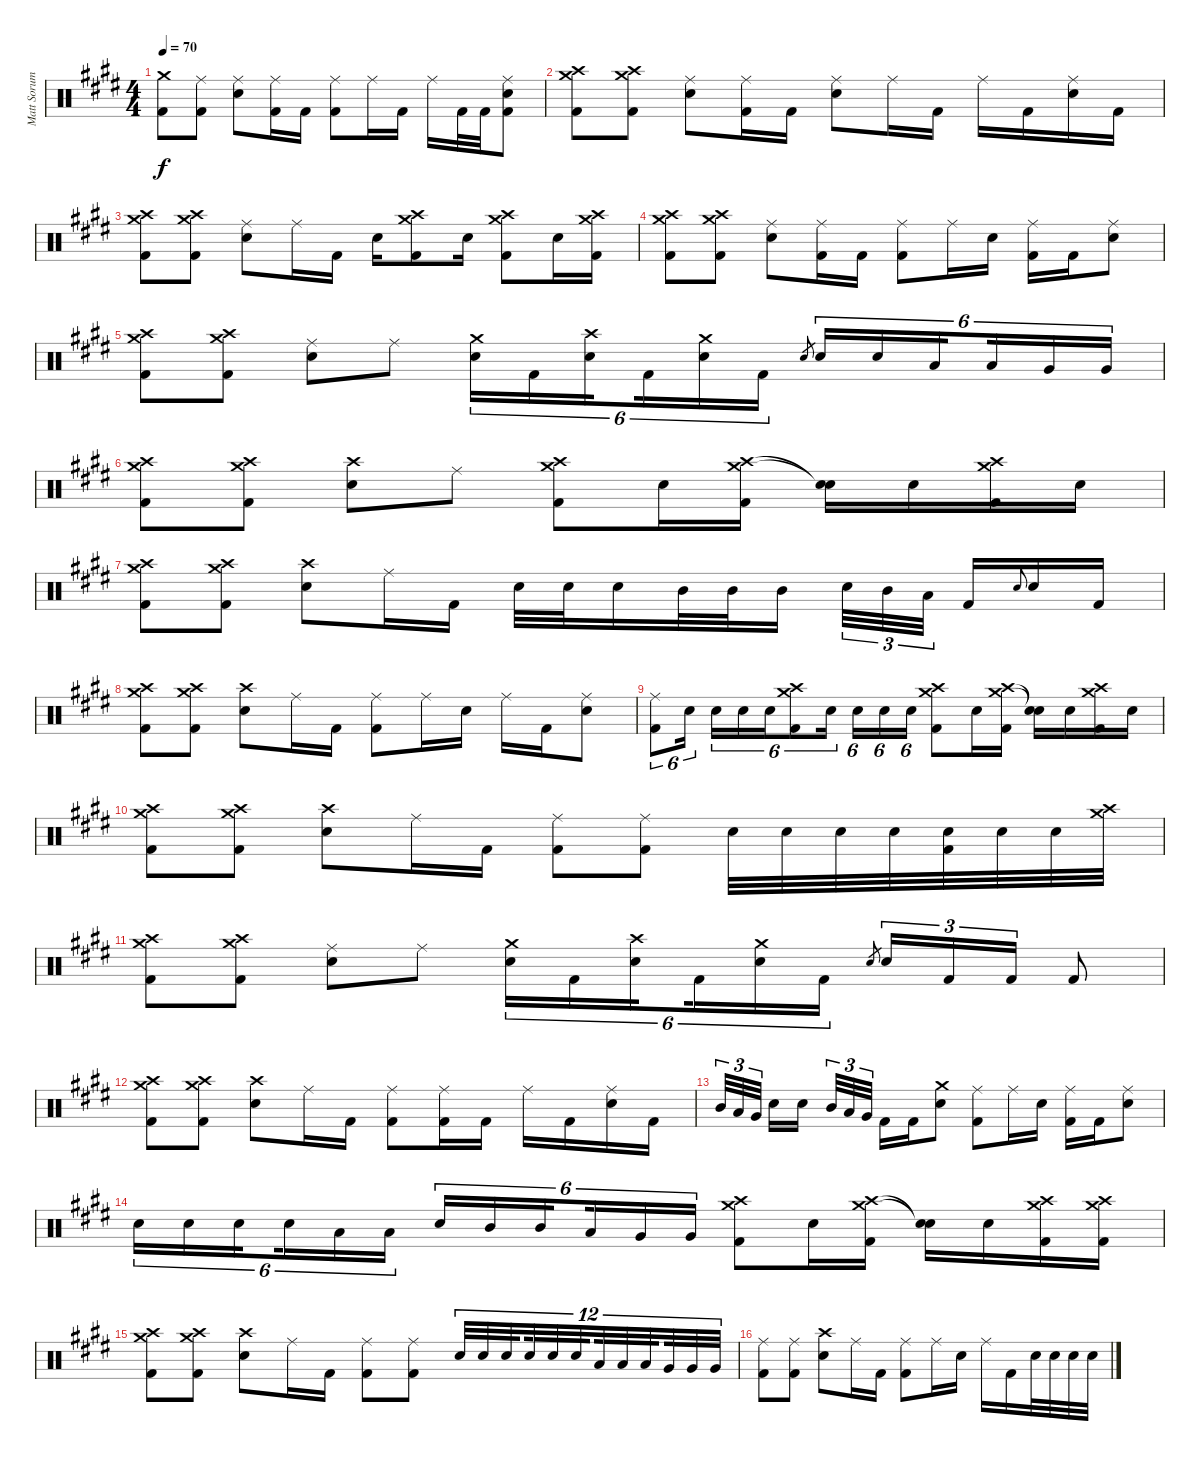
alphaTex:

\track ("Matt Sorum - Drums" "Matt Sorum") {instrument percussion}
\staff {score}
\articulation defaults
\ts (4 4)
\tempo 70
\clef neutral
\ks e
("Crash medium (hit)" "Kick (hit) 2").8{dy f} ("Ride (middle)" "Kick (hit) 2").8 ("Ride (middle)" "Snare (hit) 2").8 ("Ride (middle)" "Kick (hit) 2").16 "Kick (hit) 2".16 ("Ride (middle)" "Kick (hit) 2").8 "Ride (middle)".16 "Kick (hit) 2".16 "Ride (middle)".16 "Kick (hit) 2".32 "Kick (hit) 2".32 ("Ride (middle)" "Snare (hit) 2" "Kick (hit) 2").8 |
("Crash medium (hit)" "Crash high (hit)" "Kick (hit) 2").8 ("Crash high (hit)" "Crash medium (hit)" "Kick (hit) 2").8 ("Ride (middle)" "Snare (hit) 2").8 ("Ride (middle)" "Kick (hit) 2").16 "Kick (hit) 2".16 ("Ride (middle)" "Snare (hit) 2").8 "Ride (middle)".16 "Kick (hit) 2".16 "Ride (middle)".16 "Kick (hit) 2".16 ("Ride (middle)" "Snare (hit) 2").16 "Kick (hit) 2".16 |
("Crash medium (hit)" "Crash high (hit)" "Kick (hit) 2").8 ("Crash high (hit)" "Crash medium (hit)" "Kick (hit) 2").8 ("Ride (middle)" "Snare (hit) 2").8 "Ride (middle)".16 "Kick (hit) 2".16 "Snare (hit) 2".16 ("Crash medium (hit)" "Crash high (hit)" "Kick (hit) 2").8 "Snare (hit) 2".16 ("Crash high (hit)" "Crash medium (hit)" "Kick (hit) 2").8 "Snare (hit) 2".16 ("Crash medium (hit)" "Crash high (hit)" "Kick (hit) 2").16 |
("Crash high (hit)" "Crash medium (hit)" "Kick (hit) 2").8 ("Crash medium (hit)" "Crash high (hit)" "Kick (hit) 2").8 ("Ride (middle)" "Snare (hit) 2").8 ("Ride (middle)" "Kick (hit) 2").16 "Kick (hit) 2".16 ("Ride (middle)" "Kick (hit) 2").8 "Ride (middle)".16 "Snare (hit) 2".16 ("Ride (middle)" "Kick (hit) 2").16 "Kick (hit) 2".16 ("Ride (middle)" "Snare (hit) 2").8 |
("Crash high (hit)" "Crash medium (hit)" "Kick (hit) 2").8 ("Crash medium (hit)" "Crash high (hit)" "Kick (hit) 2").8 ("Ride (middle)" "Snare (hit) 2").8 "Ride (middle)".8 ("Crash medium (hit)" "Snare (hit) 2").16{tu (6 4)} "Kick (hit) 2".16{tu (6 4)} ("Crash high (hit)" "Snare (hit) 2").16{tu (6 4) beam splitsecondary} "Kick (hit) 2".16{tu (6 4)} ("Crash medium (hit)" "Snare (hit) 2").16{tu (6 4)} "Kick (hit) 2".16{tu (6 4)} "Snare (hit) 2".8{gr} "Snare (hit) 2".16{tu (6 4)} "Snare (hit) 2".16{tu (6 4)} "Low Tom (hit)".16{tu (6 4) beam splitsecondary} "Low Tom (hit)".16{tu (6 4)} "Very Low Tom (hit)".16{tu (6 4)} "Very Low Tom (hit)".16{tu (6 4)} |
("Crash high (hit)" "Crash medium (hit)" "Kick (hit) 2").8 ("Crash medium (hit)" "Crash high (hit)" "Kick (hit) 2").8 ("Crash high (hit)" "Snare (hit) 2").8 "Ride (middle)".8 ("Crash medium (hit)" "Crash high (hit)" "Kick (hit) 2").8 "Snare (hit) 2".16 ("Crash high (hit)" "Crash medium (hit)" "Kick (hit) 2").16 ("Snare (hit)"{t} "Snare (hit)"{t}).16 "Snare (hit) 2".16 ("Crash medium (hit)" "Crash high (hit)" "Kick (hit) 2").16 "Snare (hit) 2".16 |
("Crash high (hit)" "Crash medium (hit)" "Kick (hit) 2").8 ("Crash medium (hit)" "Crash high (hit)" "Kick (hit) 2").8 ("Crash high (hit)" "Snare (hit) 2").8 "Ride (middle)".16 "Kick (hit) 2".16 "Snare (hit) 2".32 "Snare (hit) 2".32 "Snare (hit) 2".16 "Mid Tom (hit)".32 "Mid Tom (hit)".32 "Mid Tom (hit)".16 "Snare (hit) 2".32{tu (3 2)} "Mid Tom (hit)".32{tu (3 2)} "Low Tom (hit)".32{tu (3 2) beam splitsecondary} "Kick (hit) 2".16 "Snare (hit) 2".8{gr onbeat} "Snare (hit) 2".16 "Kick (hit) 2".16 |
("Crash high (hit)" "Crash medium (hit)" "Kick (hit) 2").8 ("Crash medium (hit)" "Crash high (hit)" "Kick (hit) 2").8 ("Crash high (hit)" "Snare (hit) 2").8 "Ride (middle)".16 "Kick (hit) 2".16 ("Ride (middle)" "Kick (hit) 2").8 "Ride (middle)".16 "Snare (hit) 2".16 "Ride (middle)".16 "Kick (hit) 2".16 ("Ride (middle)" "Snare (hit) 2").8 |
("Ride (middle)" "Kick (hit) 2").8{tu (6 4)} "Snare (hit) 2".16{tu (6 4) beam splitsecondary} "Snare (hit) 2".16{tu (6 4)} "Snare (hit) 2".16{tu (6 4)} "Snare (hit) 2".16{tu (6 4)} ("Crash medium (hit)" "Crash high (hit)" "Kick (hit) 2").8{tu (6 4)} "Snare (hit) 2".16{tu (6 4) beam splitsecondary} "Snare (hit) 2".16{tu (6 4)} "Snare (hit) 2".16{tu (6 4)} "Snare (hit) 2".16{tu (6 4)} ("Crash medium (hit)" "Crash high (hit)" "Kick (hit) 2").8 "Snare (hit) 2".16 ("Crash medium (hit)" "Crash high (hit)" "Kick (hit) 2").16 ("Snare (hit)"{t} "Snare (hit)"{t}).16 "Snare (hit) 2".16 ("Crash medium (hit)" "Crash high (hit)" "Kick (hit) 2").16 "Snare (hit) 2".16 |
("Crash high (hit)" "Crash medium (hit)" "Kick (hit) 2").8 ("Crash medium (hit)" "Crash high (hit)" "Kick (hit) 2").8 ("Crash high (hit)" "Snare (hit) 2").8 "Ride (middle)".16 "Kick (hit) 2".16 ("Ride (middle)" "Kick (hit) 2").8 ("Ride (middle)" "Kick (hit) 2").8 "Snare (hit) 2".32 "Snare (hit) 2".32 "Snare (hit) 2".32 "Snare (hit) 2".32 ("Snare (hit) 2" "Kick (hit) 2").32 "Snare (hit) 2".32 "Snare (hit) 2".32 ("Crash medium (hit)" "Crash high (hit)").32 |
("Crash high (hit)" "Crash medium (hit)" "Kick (hit) 2").8 ("Crash medium (hit)" "Crash high (hit)" "Kick (hit) 2").8 ("Ride (middle)" "Snare (hit) 2").8 "Ride (middle)".8 ("Crash medium (hit)" "Snare (hit) 2").16{tu (6 4)} "Kick (hit) 2".16{tu (6 4)} ("Crash high (hit)" "Snare (hit) 2").16{tu (6 4) beam splitsecondary} "Kick (hit) 2".16{tu (6 4)} ("Crash medium (hit)" "Snare (hit) 2").16{tu (6 4)} "Kick (hit) 2".16{tu (6 4)} "Snare (hit) 2".8{gr} "Snare (hit) 2".16{tu (3 2)} "Kick (hit) 2".16{tu (3 2)} "Kick (hit) 2".16{tu (3 2)} "Kick (hit) 2".8 |
("Crash high (hit)" "Crash medium (hit)" "Kick (hit) 2").8 ("Crash medium (hit)" "Crash high (hit)" "Kick (hit) 2").8 ("Crash high (hit)" "Snare (hit) 2").8 "Ride (middle)".16 "Kick (hit) 2".16 ("Ride (middle)" "Kick (hit) 2").8 ("Ride (middle)" "Kick (hit) 2").16 "Kick (hit) 2".16 "Ride (middle)".16 "Kick (hit) 2".16 ("Ride (middle)" "Snare (hit) 2").16 "Kick (hit) 2".16 |
"Mid Tom (hit)".32{tu (3 2)} "Low Tom (hit)".32{tu (3 2)} "Very Low Tom (hit)".32{tu (3 2) beam splitsecondary} "Snare (hit) 2".16 "Snare (hit) 2".16{beam splitsecondary} "Mid Tom (hit)".32{tu (3 2)} "Low Tom (hit)".32{tu (3 2)} "Very Low Tom (hit)".32{tu (3 2)} "Kick (hit) 2".16 "Kick (hit) 2".16 ("Crash medium (hit)" "Snare (hit) 2").8 ("Ride (middle)" "Kick (hit) 2").8 "Ride (middle)".16 "Snare (hit) 2".16 ("Ride (middle)" "Kick (hit) 2").16 "Kick (hit) 2".16 ("Ride (middle)" "Snare (hit) 2").8 |
"Snare (hit) 2".16{tu (6 4)} "Snare (hit) 2".16{tu (6 4)} "Snare (hit) 2".16{tu (6 4) beam splitsecondary} "Snare (hit) 2".16{tu (6 4)} "Low Tom (hit)".16{tu (6 4)} "Low Tom (hit)".16{tu (6 4)} "Snare (hit) 2".16{tu (6 4)} "Mid Tom (hit)".16{tu (6 4)} "Mid Tom (hit)".16{tu (6 4) beam splitsecondary} "Low Tom (hit)".16{tu (6 4)} "Very Low Tom (hit)".16{tu (6 4)} "Very Low Tom (hit)".16{tu (6 4)} ("Crash medium (hit)" "Crash high (hit)" "Kick (hit) 2").8 "Snare (hit) 2".16 ("Crash high (hit)" "Crash medium (hit)" "Kick (hit) 2").16 ("Snare (hit)"{t} "Snare (hit)"{t}).16 "Snare (hit) 2".16 ("Crash medium (hit)" "Crash high (hit)" "Kick (hit) 2").16 ("Crash high (hit)" "Crash medium (hit)" "Kick (hit) 2").16 |
("Crash high (hit)" "Crash medium (hit)" "Kick (hit) 2").8 ("Crash medium (hit)" "Crash high (hit)" "Kick (hit) 2").8 ("Crash high (hit)" "Snare (hit) 2").8 "Ride (middle)".16 "Kick (hit) 2".16 ("Ride (middle)" "Kick (hit) 2").8 ("Ride (middle)" "Kick (hit) 2").8 "Snare (hit) 2".32{tu (12 8)} "Snare (hit) 2".32{tu (12 8)} "Snare (hit) 2".32{tu (12 8) beam splitsecondary} "Snare (hit) 2".32{tu (12 8)} "Snare (hit) 2".32{tu (12 8)} "Snare (hit) 2".32{tu (12 8) beam splitsecondary} "Low Tom (hit)".32{tu (12 8)} "Low Tom (hit)".32{tu (12 8)} "Low Tom (hit)".32{tu (12 8) beam splitsecondary} "Very Low Tom (hit)".32{tu (12 8)} "Very Low Tom (hit)".32{tu (12 8)} "Very Low Tom (hit)".32{tu (12 8)} |
("Ride (middle)" "Kick (hit) 2").8 ("Ride (middle)" "Kick (hit) 2").8 ("Crash high (hit)" "Snare (hit) 2").8 "Ride (middle)".16 "Kick (hit) 2".16 ("Ride (middle)" "Kick (hit) 2").8 "Ride (middle)".16 "Snare (hit) 2".16 "Ride (middle)".16 "Kick (hit) 2".16 "Snare (hit) 2".32 "Snare (hit) 2".32 "Snare (hit) 2".32 "Snare (hit) 2".32
